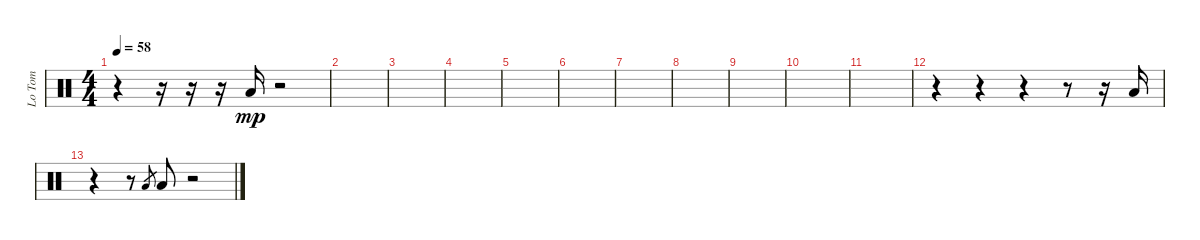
\track ("Lo Tom" "Lo Tom") {instrument percussion}
\staff {score}
\articulation defaults
\ts (4 4)
\tempo 58
\clef neutral
\ks c
r.4{dy pp} r.16 r.16 r.16 "Low Tom (hit)".16{dy mp} r.2 |
|
|
|
|
|
|
|
|
|
|
r.4 r.4 r.4 r.8 r.16 "Low Tom (hit)".16 |
r.4 r.8 "Low Tom (hit)".8{gr} "Low Tom (hit)".8 r.2
